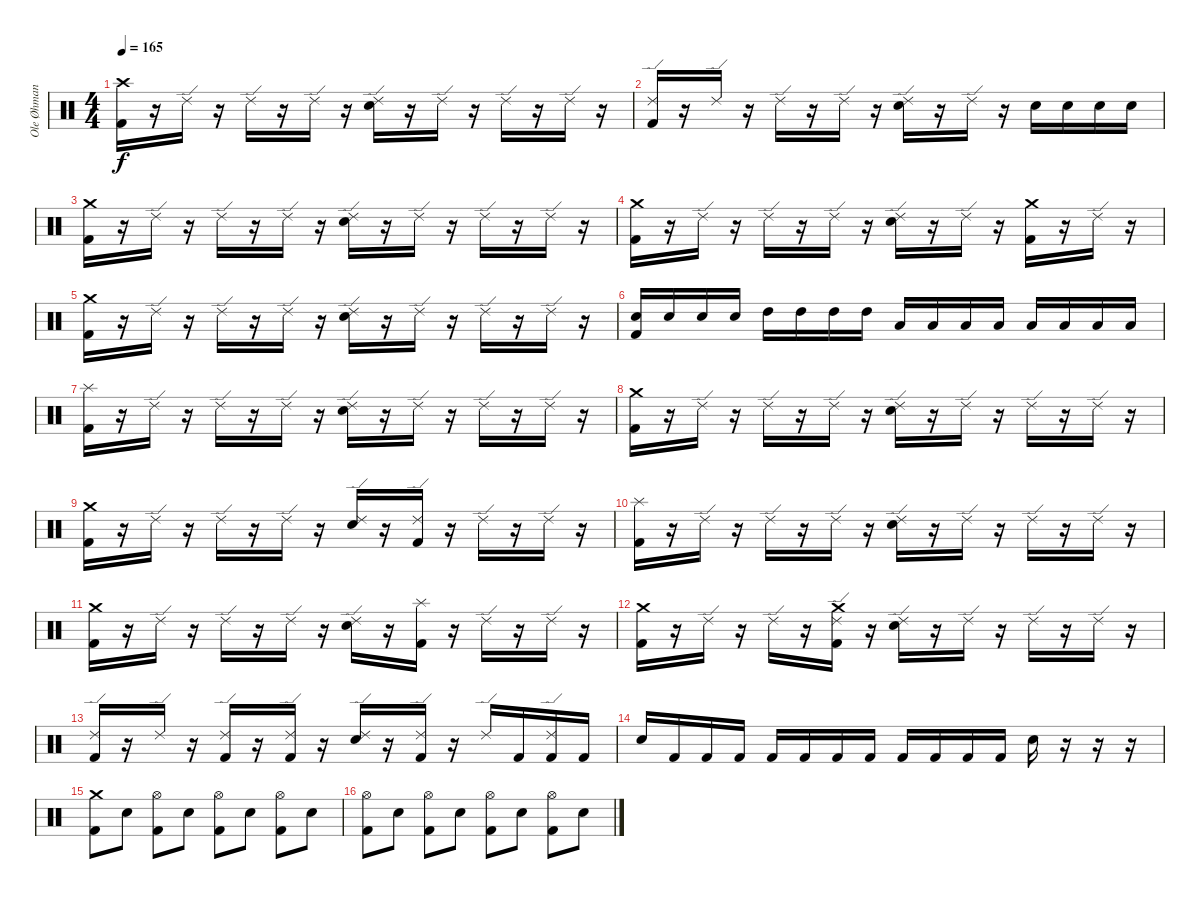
\track ("Ole Øhman (Trommur)" "Ole Øhman ") {instrument percussion}
\staff {score}
\articulation defaults
\ts (4 4)
\tempo 165
\clef neutral
\ks c
("Crash high (hit)" "Kick (hit) 2").16{dy f} r.16 "Ride (edge) 2".16 r.16 "Ride (edge) 2".16 r.16 "Ride (edge) 2".16 r.16 ("Ride (edge) 2" "Electric Snare (hit)").16 r.16 "Ride (edge) 2".16 r.16 "Ride (edge) 2".16 r.16 "Ride (edge) 2".16 r.16 |
("Ride (edge) 2" "Kick (hit) 2").16 r.16 "Ride (edge) 2".16 r.16 "Ride (edge) 2".16 r.16 "Ride (edge) 2".16 r.16 ("Ride (edge) 2" "Electric Snare (hit)").16 r.16 "Ride (edge) 2".16 r.16 "Electric Snare (hit)".16 "Electric Snare (hit)".16 "Electric Snare (hit)".16 "Electric Snare (hit)".16 |
("Crash medium (hit)" "Kick (hit) 2").16 r.16 "Ride (edge) 2".16 r.16 "Ride (edge) 2".16 r.16 "Ride (edge) 2".16 r.16 ("Ride (edge) 2" "Electric Snare (hit)").16 r.16 "Ride (edge) 2".16 r.16 "Ride (edge) 2".16 r.16 "Ride (edge) 2".16 r.16 |
("Crash medium (hit)" "Kick (hit) 2").16 r.16 "Ride (edge) 2".16 r.16 "Ride (edge) 2".16 r.16 "Ride (edge) 2".16 r.16 ("Ride (edge) 2" "Electric Snare (hit)").16 r.16 "Ride (edge) 2".16 r.16 ("Crash medium (hit)" "Kick (hit) 2").16 r.16 "Ride (edge) 2".16 r.16 |
("Crash medium (hit)" "Kick (hit) 2").16 r.16 "Ride (edge) 2".16 r.16 "Ride (edge) 2".16 r.16 "Ride (edge) 2".16 r.16 ("Ride (edge) 2" "Electric Snare (hit)").16 r.16 "Ride (edge) 2".16 r.16 "Ride (edge) 2".16 r.16 "Ride (edge) 2".16 r.16 |
("Electric Snare (hit)" "Kick (hit) 2").16 "Electric Snare (hit)".16 "Electric Snare (hit)".16 "Electric Snare (hit)".16 "High Tom (hit)".16 "High Tom (hit)".16 "High Tom (hit)".16 "High Tom (hit)".16 "Low Tom (hit)".16 "Low Tom (hit)".16 "Low Tom (hit)".16 "Low Tom (hit)".16 "Low Floor Tom (hit)".16 "Low Floor Tom (hit)".16 "Low Floor Tom (hit)".16 "Low Floor Tom (hit)".16 |
("Splash (hit)" "Kick (hit) 2").16 r.16 "Ride (edge) 2".16 r.16 "Ride (edge) 2".16 r.16 "Ride (edge) 2".16 r.16 ("Ride (edge) 2" "Electric Snare (hit)").16 r.16 "Ride (edge) 2".16 r.16 "Ride (edge) 2".16 r.16 "Ride (edge) 2".16 r.16 |
("Crash medium (hit)" "Kick (hit) 2").16 r.16 "Ride (edge) 2".16 r.16 "Ride (edge) 2".16 r.16 "Ride (edge) 2".16 r.16 ("Ride (edge) 2" "Electric Snare (hit)").16 r.16 "Ride (edge) 2".16 r.16 "Ride (edge) 2".16 r.16 "Ride (edge) 2".16 r.16 |
("Crash medium (hit)" "Kick (hit) 2").16 r.16 "Ride (edge) 2".16 r.16 "Ride (edge) 2".16 r.16 "Ride (edge) 2".16 r.16 ("Ride (edge) 2" "Electric Snare (hit)").16 r.16 ("Ride (edge) 2" "Kick (hit) 2").16 r.16 "Ride (edge) 2".16 r.16 "Ride (edge) 2".16 r.16 |
("Splash (hit)" "Kick (hit) 2").16 r.16 "Ride (edge) 2".16 r.16 "Ride (edge) 2".16 r.16 "Ride (edge) 2".16 r.16 ("Ride (edge) 2" "Electric Snare (hit)").16 r.16 "Ride (edge) 2".16 r.16 "Ride (edge) 2".16 r.16 "Ride (edge) 2".16 r.16 |
("Crash medium (hit)" "Kick (hit) 2").16 r.16 "Ride (edge) 2".16 r.16 "Ride (edge) 2".16 r.16 "Ride (edge) 2".16 r.16 ("Ride (edge) 2" "Electric Snare (hit)").16 r.16 ("Splash (hit)" "Kick (hit) 2").16 r.16 "Ride (edge) 2".16 r.16 "Ride (edge) 2".16 r.16 |
("Crash medium (hit)" "Kick (hit) 2").16 r.16 "Ride (edge) 2".16 r.16 "Ride (edge) 2".16 r.16 ("Crash medium (hit)" "Ride (edge) 2" "Kick (hit) 2").16 r.16 ("Ride (edge) 2" "Electric Snare (hit)").16 r.16 "Ride (edge) 2".16 r.16 "Ride (edge) 2".16 r.16 "Ride (edge) 2".16 r.16 |
("Ride (edge) 2" "Kick (hit) 2").16 r.16 "Ride (edge) 2".16 r.16 ("Ride (edge) 2" "Kick (hit) 2").16 r.16 ("Ride (edge) 2" "Kick (hit) 2").16 r.16 ("Ride (edge) 2" "Electric Snare (hit)").16 r.16 ("Ride (edge) 2" "Kick (hit) 2").16 r.16 "Ride (edge) 2".16 "Kick (hit) 2".16 ("Ride (edge) 2" "Kick (hit) 2").16 "Kick (hit) 2".16 |
"Electric Snare (hit)".16 "Kick (hit) 2".16 "Kick (hit) 2".16 "Kick (hit) 2".16 "Kick (hit) 2".16 "Kick (hit) 2".16 "Kick (hit) 2".16 "Kick (hit) 2".16 "Kick (hit) 2".16 "Kick (hit) 2".16 "Kick (hit) 2".16 "Kick (hit) 2".16 "Electric Snare (hit)".16 r.16 r.16 r.16 |
("Crash medium (hit)" "Kick (hit) 2").8 "Electric Snare (hit)".8 ("Hi-Hat (open)" "Kick (hit) 2").8 "Electric Snare (hit)".8 ("Hi-Hat (open)" "Kick (hit) 2").8 "Electric Snare (hit)".8 ("Hi-Hat (open)" "Kick (hit) 2").8 "Electric Snare (hit)".8 |
("Hi-Hat (open)" "Kick (hit) 2").8 "Electric Snare (hit)".8 ("Hi-Hat (open)" "Kick (hit) 2").8 "Electric Snare (hit)".8 ("Hi-Hat (open)" "Kick (hit) 2").8 "Electric Snare (hit)".8 ("Hi-Hat (open)" "Kick (hit) 2").8 "Electric Snare (hit)".8
